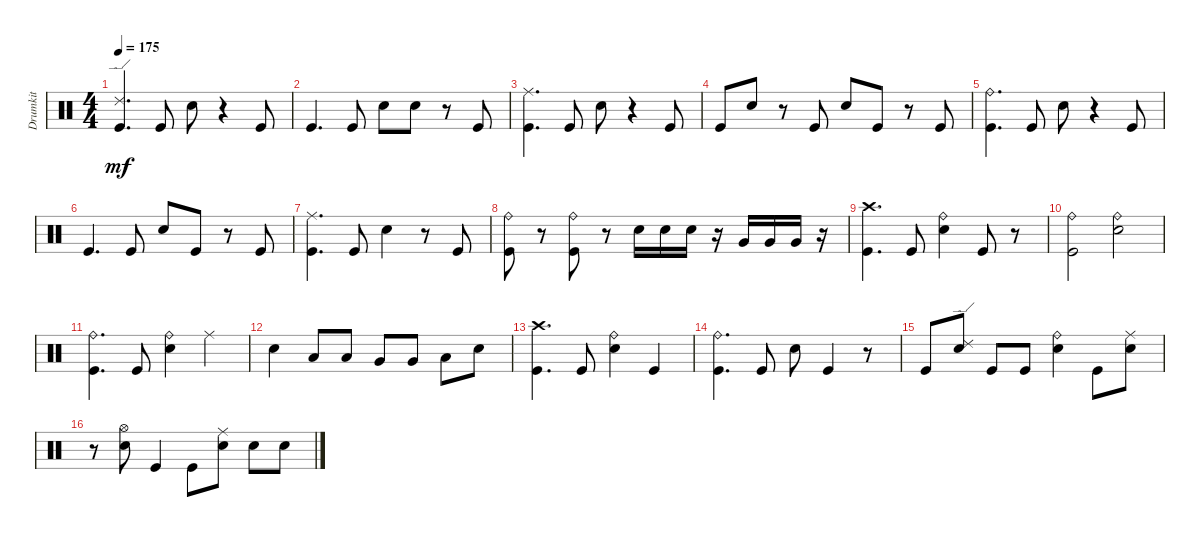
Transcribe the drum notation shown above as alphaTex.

\track ("Drumkit" "Drumkit") {instrument percussion}
\staff {score}
\articulation defaults
\ts (4 4)
\tempo 175
\clef neutral
\ks c
("Kick (hit)" "Ride (edge) 2").4{d dy mf} "Kick (hit)".8 "Snare (hit) 2".8 r.4 "Kick (hit)".8 |
"Kick (hit)".4{d} "Kick (hit)".8 "Snare (hit) 2".8 "Snare (hit) 2".8 r.8 "Kick (hit)".8 |
("Kick (hit)" "Ride (middle)").4{d} "Kick (hit)".8 "Snare (hit) 2".8 r.4 "Kick (hit)".8 |
"Kick (hit)".8 "Snare (hit) 2".8 r.8 "Kick (hit)".8 "Snare (hit) 2".8 "Kick (hit)".8 r.8 "Kick (hit)".8 |
("Kick (hit)" "Ride (bell)").4{d} "Kick (hit)".8 "Snare (hit) 2".8 r.4 "Kick (hit)".8 |
"Kick (hit)".4{d} "Kick (hit)".8 "Snare (hit) 2".8 "Kick (hit)".8 r.8 "Kick (hit)".8 |
("Kick (hit)" "Ride (middle)").4{d} "Kick (hit)".8 "Snare (hit) 2".4 r.8 "Kick (hit)".8 |
("Kick (hit)" "Ride (bell)").8 r.8 ("Kick (hit)" "Ride (bell)").8 r.8 "Snare (hit) 2".16 "Snare (hit) 2".16 "Snare (hit) 2".16 r.16 "Very Low Tom (hit)".16 "Very Low Tom (hit)".16 "Very Low Tom (hit)".16 r.16 |
("Kick (hit)" "Crash high (hit)").4{d} "Kick (hit)".8 ("Snare (hit) 2" "Ride (bell)").4 "Kick (hit)".8 r.8 |
("Kick (hit)" "Ride (bell)").2 ("Snare (hit) 2" "Ride (bell)").2 |
("Kick (hit)" "Ride (bell)").4{d} "Kick (hit)".8 ("Snare (hit) 2" "Ride (bell)").4 "Ride (middle)".4 |
"Snare (hit) 2".4 "Low Tom (hit)".8 "Low Tom (hit)".8 "Very Low Tom (hit)".8 "Very Low Tom (hit)".8 "Low Tom (hit)".8 "Snare (hit) 2".8 |
("Kick (hit)" "Crash high (hit)").4{d} "Kick (hit)".8 ("Snare (hit) 2" "Ride (bell)").4 "Kick (hit)".4 |
("Kick (hit)" "Ride (bell)").4{d} "Kick (hit)".8 "Snare (hit) 2".8 "Kick (hit)".4 r.8 |
"Kick (hit)".8 ("Snare (hit) 2" "Ride (edge) 2").8 "Kick (hit)".8 "Kick (hit)".8 ("Snare (hit) 2" "Ride (bell)").4 "Kick (hit)".8 ("Snare (hit) 2" "Ride (middle)").8 |
r.8 ("Snare (hit) 2" "Hi-Hat (open)").8 "Kick (hit)".4 "Kick (hit)".8 ("Snare (hit) 2" "Ride (middle)").8 "Snare (hit) 2".8 "Snare (hit) 2".8
